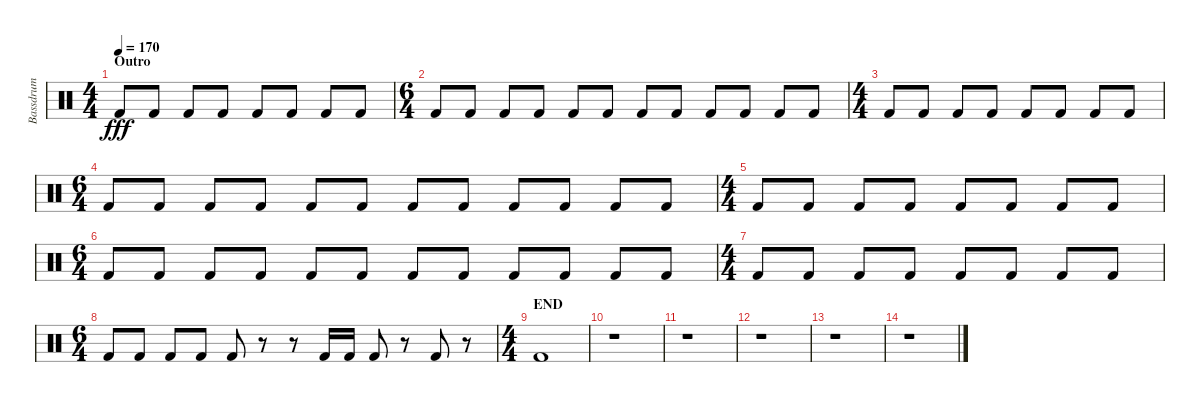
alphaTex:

\track ("Bassdrum" "Bassdrum") {instrument percussion}
\staff {score}
\articulation defaults
\ts (4 4)
\section ("" "Outro")
\tempo 170
\clef neutral
\ks c "Kick (hit) 2".8{dy fff} "Kick (hit) 2".8 "Kick (hit) 2".8 "Kick (hit) 2".8 "Kick (hit) 2".8 "Kick (hit) 2".8 "Kick (hit) 2".8 "Kick (hit) 2".8
|
\ts (6 4)
"Kick (hit) 2".8 "Kick (hit) 2".8 "Kick (hit) 2".8 "Kick (hit) 2".8 "Kick (hit) 2".8 "Kick (hit) 2".8 "Kick (hit) 2".8 "Kick (hit) 2".8 "Kick (hit) 2".8 "Kick (hit) 2".8 "Kick (hit) 2".8 "Kick (hit) 2".8 |
\ts (4 4)
"Kick (hit) 2".8 "Kick (hit) 2".8 "Kick (hit) 2".8 "Kick (hit) 2".8 "Kick (hit) 2".8 "Kick (hit) 2".8 "Kick (hit) 2".8 "Kick (hit) 2".8 |
\ts (6 4)
"Kick (hit) 2".8 "Kick (hit) 2".8 "Kick (hit) 2".8 "Kick (hit) 2".8 "Kick (hit) 2".8 "Kick (hit) 2".8 "Kick (hit) 2".8 "Kick (hit) 2".8 "Kick (hit) 2".8 "Kick (hit) 2".8 "Kick (hit) 2".8 "Kick (hit) 2".8 |
\ts (4 4)
"Kick (hit) 2".8 "Kick (hit) 2".8 "Kick (hit) 2".8 "Kick (hit) 2".8 "Kick (hit) 2".8 "Kick (hit) 2".8 "Kick (hit) 2".8 "Kick (hit) 2".8 |
\ts (6 4)
"Kick (hit) 2".8 "Kick (hit) 2".8 "Kick (hit) 2".8 "Kick (hit) 2".8 "Kick (hit) 2".8 "Kick (hit) 2".8 "Kick (hit) 2".8 "Kick (hit) 2".8 "Kick (hit) 2".8 "Kick (hit) 2".8 "Kick (hit) 2".8 "Kick (hit) 2".8 |
\ts (4 4)
"Kick (hit) 2".8 "Kick (hit) 2".8 "Kick (hit) 2".8 "Kick (hit) 2".8 "Kick (hit) 2".8 "Kick (hit) 2".8 "Kick (hit) 2".8 "Kick (hit) 2".8 |
\ts (6 4)
"Kick (hit) 2".8 "Kick (hit) 2".8 "Kick (hit) 2".8 "Kick (hit) 2".8 "Kick (hit) 2".8 r.8 r.8 "Kick (hit) 2".16 "Kick (hit) 2".16 "Kick (hit) 2".8 r.8 "Kick (hit) 2".8 r.8 |
\ts (4 4)
\section ("" "END")
"Kick (hit) 2".1 |
r.1 |
r.1 |
r.1 |
r.1 |
r.1
